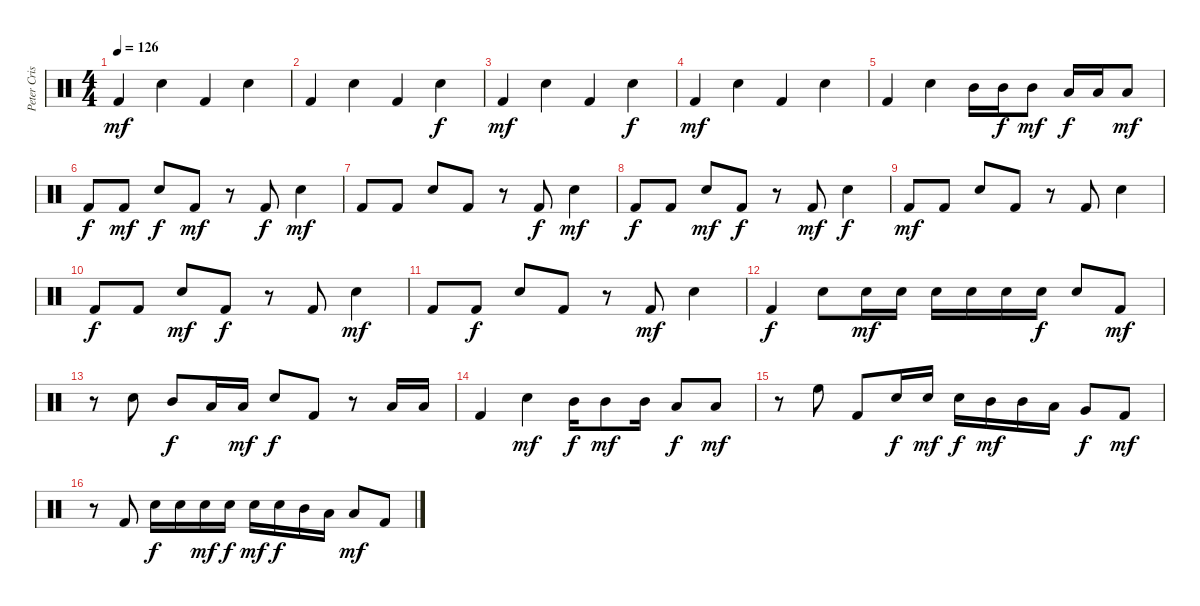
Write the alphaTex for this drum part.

\track ("Peter Criss" "Peter Cris") {instrument percussion}
\staff {score}
\articulation defaults
\ts (4 4)
\tempo 126
\clef neutral
\ks c "Kick (hit) 2".4{dy mf} "Electric Snare (hit)".4 "Kick (hit) 2".4 "Electric Snare (hit)".4
|
"Kick (hit) 2".4 "Electric Snare (hit)".4 "Kick (hit) 2".4 "Electric Snare (hit)".4{dy f} |
"Kick (hit) 2".4{dy mf} "Electric Snare (hit)".4 "Kick (hit) 2".4 "Electric Snare (hit)".4{dy f} |
"Kick (hit) 2".4{dy mf} "Electric Snare (hit)".4 "Kick (hit) 2".4 "Electric Snare (hit)".4 |
"Kick (hit) 2".4 "Electric Snare (hit)".4 "Mid Tom (hit)".16 "Mid Tom (hit)".16{dy f} "Mid Tom (hit)".8{dy mf} "Low Tom (hit)".16{dy f} "Low Tom (hit)".16 "Low Tom (hit)".8{dy mf} |
"Kick (hit) 2".8{dy f} "Kick (hit) 2".8{dy mf} "Electric Snare (hit)".8{dy f} "Kick (hit) 2".8{dy mf} r.8 "Kick (hit) 2".8{dy f} "Electric Snare (hit)".4{dy mf} |
"Kick (hit) 2".8 "Kick (hit) 2".8 "Electric Snare (hit)".8 "Kick (hit) 2".8 r.8 "Kick (hit) 2".8{dy f} "Electric Snare (hit)".4{dy mf} |
"Kick (hit) 2".8{dy f} "Kick (hit) 2".8 "Electric Snare (hit)".8{dy mf} "Kick (hit) 2".8{dy f} r.8 "Kick (hit) 2".8{dy mf} "Electric Snare (hit)".4{dy f} |
"Kick (hit) 2".8{dy mf} "Kick (hit) 2".8 "Electric Snare (hit)".8 "Kick (hit) 2".8 r.8 "Kick (hit) 2".8 "Electric Snare (hit)".4 |
"Kick (hit) 2".8{dy f} "Kick (hit) 2".8 "Electric Snare (hit)".8{dy mf} "Kick (hit) 2".8{dy f} r.8 "Kick (hit) 2".8 "Electric Snare (hit)".4{dy mf} |
"Kick (hit) 2".8 "Kick (hit) 2".8{dy f} "Electric Snare (hit)".8 "Kick (hit) 2".8 r.8 "Kick (hit) 2".8{dy mf} "Electric Snare (hit)".4 |
"Kick (hit) 2".4{dy f} "Electric Snare (hit)".8 "Electric Snare (hit)".16{dy mf} "Electric Snare (hit)".16 "Electric Snare (hit)".16 "Electric Snare (hit)".16 "Electric Snare (hit)".16 "Electric Snare (hit)".16{dy f} "Electric Snare (hit)".8 "Kick (hit) 2".8{dy mf} |
r.8 "Electric Snare (hit)".8 "Mid Tom (hit)".8{dy f} "Low Tom (hit)".16 "Low Tom (hit)".16{dy mf} "Electric Snare (hit)".8{dy f} "Kick (hit) 2".8 r.8 "Low Tom (hit)".16 "Low Tom (hit)".16 |
"Kick (hit) 2".4 "Electric Snare (hit)".4{dy mf} "Mid Tom (hit)".16{dy f} "Mid Tom (hit)".8{dy mf} "Mid Tom (hit)".16 "Low Tom (hit)".8{dy f} "Low Floor Tom (hit)".8{dy mf} |
r.8 "High Floor Tom (hit)".8 "Kick (hit) 2".8 "Electric Snare (hit)".16{dy f} "Electric Snare (hit)".16{dy mf} "Electric Snare (hit)".16{dy f} "Mid Tom (hit)".16{dy mf} "Mid Tom (hit)".16 "Low Tom (hit)".16 "Very Low Tom (hit)".8{dy f} "Kick (hit) 2".8{dy mf} |
r.8 "Kick (hit) 2".8 "Electric Snare (hit)".16{dy f} "Electric Snare (hit)".16 "Electric Snare (hit)".16{dy mf} "Electric Snare (hit)".16{dy f} "Electric Snare (hit)".16{dy mf} "Electric Snare (hit)".16{dy f} "Mid Tom (hit)".16 "Low Tom (hit)".16 "Low Tom (hit)".8{dy mf} "Kick (hit) 2".8
